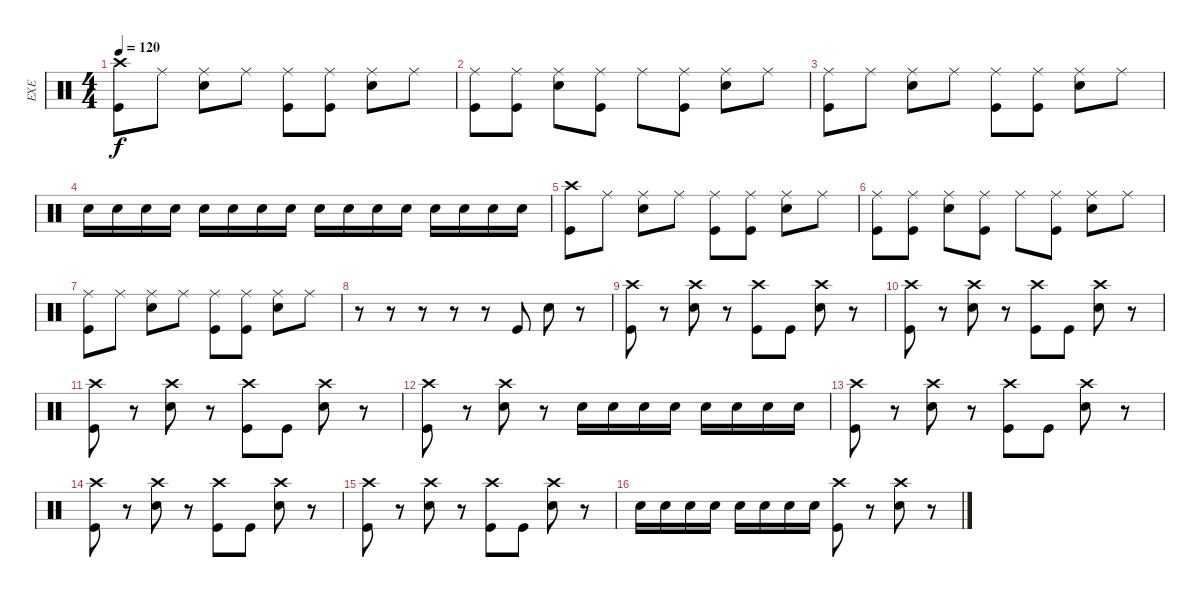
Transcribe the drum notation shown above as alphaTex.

\track ("EXE" "EXE") {instrument percussion}
\staff {score}
\articulation defaults
\ts (4 4)
\tempo 120
\clef neutral
\ks c
("Kick (hit)" "Crash high (hit)").8{dy f} "Ride (middle)".8 ("Snare (hit) 2" "Ride (middle)").8 "Ride (middle)".8 ("Kick (hit)" "Ride (middle)").8 ("Kick (hit)" "Ride (middle)").8 ("Snare (hit) 2" "Ride (middle)").8 "Ride (middle)".8 |
("Kick (hit)" "Ride (middle)").8 ("Kick (hit)" "Ride (middle)").8 ("Snare (hit) 2" "Ride (middle)").8 ("Kick (hit)" "Ride (middle)").8 "Ride (middle)".8 ("Kick (hit)" "Ride (middle)").8 ("Snare (hit) 2" "Ride (middle)").8 "Ride (middle)".8 |
("Kick (hit)" "Ride (middle)").8 "Ride (middle)".8 ("Snare (hit) 2" "Ride (middle)").8 "Ride (middle)".8 ("Kick (hit)" "Ride (middle)").8 ("Kick (hit)" "Ride (middle)").8 ("Snare (hit) 2" "Ride (middle)").8 "Ride (middle)".8 |
"Snare (hit) 2".16 "Snare (hit) 2".16 "Snare (hit) 2".16 "Snare (hit) 2".16 "Snare (hit) 2".16 "Snare (hit) 2".16 "Snare (hit) 2".16 "Snare (hit) 2".16 "Snare (hit) 2".16 "Snare (hit) 2".16 "Snare (hit) 2".16 "Snare (hit) 2".16 "Snare (hit) 2".16 "Snare (hit) 2".16 "Snare (hit) 2".16 "Snare (hit) 2".16 |
("Kick (hit)" "Crash high (hit)").8 "Ride (middle)".8 ("Snare (hit) 2" "Ride (middle)").8 "Ride (middle)".8 ("Kick (hit)" "Ride (middle)").8 ("Kick (hit)" "Ride (middle)").8 ("Snare (hit) 2" "Ride (middle)").8 "Ride (middle)".8 |
("Kick (hit)" "Ride (middle)").8 ("Kick (hit)" "Ride (middle)").8 ("Snare (hit) 2" "Ride (middle)").8 ("Kick (hit)" "Ride (middle)").8 "Ride (middle)".8 ("Kick (hit)" "Ride (middle)").8 ("Snare (hit) 2" "Ride (middle)").8 "Ride (middle)".8 |
("Kick (hit)" "Ride (middle)").8 "Ride (middle)".8 ("Snare (hit) 2" "Ride (middle)").8 "Ride (middle)".8 ("Kick (hit)" "Ride (middle)").8 ("Kick (hit)" "Ride (middle)").8 ("Snare (hit) 2" "Ride (middle)").8 "Ride (middle)".8 |
r.8 r.8 r.8 r.8 r.8 "Kick (hit)".8 "Snare (hit) 2".8 r.8 |
("Kick (hit)" "Crash high (hit)").8 r.8 ("Snare (hit) 2" "Crash high (hit)").8 r.8 ("Kick (hit)" "Crash high (hit)").8 "Kick (hit)".8 ("Snare (hit) 2" "Crash high (hit)").8 r.8 |
("Kick (hit)" "Crash high (hit)").8 r.8 ("Snare (hit) 2" "Crash high (hit)").8 r.8 ("Kick (hit)" "Crash high (hit)").8 "Kick (hit)".8 ("Snare (hit) 2" "Crash high (hit)").8 r.8 |
("Kick (hit)" "Crash high (hit)").8 r.8 ("Snare (hit) 2" "Crash high (hit)").8 r.8 ("Kick (hit)" "Crash high (hit)").8 "Kick (hit)".8 ("Snare (hit) 2" "Crash high (hit)").8 r.8 |
("Kick (hit)" "Crash high (hit)").8 r.8 ("Snare (hit) 2" "Crash high (hit)").8 r.8 "Snare (hit) 2".16 "Snare (hit) 2".16 "Snare (hit) 2".16 "Snare (hit) 2".16 "Snare (hit) 2".16 "Snare (hit) 2".16 "Snare (hit) 2".16 "Snare (hit) 2".16 |
("Kick (hit)" "Crash high (hit)").8 r.8 ("Snare (hit) 2" "Crash high (hit)").8 r.8 ("Kick (hit)" "Crash high (hit)").8 "Kick (hit)".8 ("Snare (hit) 2" "Crash high (hit)").8 r.8 |
("Kick (hit)" "Crash high (hit)").8 r.8 ("Snare (hit) 2" "Crash high (hit)").8 r.8 ("Kick (hit)" "Crash high (hit)").8 "Kick (hit)".8 ("Snare (hit) 2" "Crash high (hit)").8 r.8 |
("Kick (hit)" "Crash high (hit)").8 r.8 ("Snare (hit) 2" "Crash high (hit)").8 r.8 ("Kick (hit)" "Crash high (hit)").8 "Kick (hit)".8 ("Snare (hit) 2" "Crash high (hit)").8 r.8 |
"Snare (hit) 2".16 "Snare (hit) 2".16 "Snare (hit) 2".16 "Snare (hit) 2".16 "Snare (hit) 2".16 "Snare (hit) 2".16 "Snare (hit) 2".16 "Snare (hit) 2".16 ("Kick (hit)" "Crash high (hit)").8 r.8 ("Snare (hit) 2" "Crash high (hit)").8 r.8
